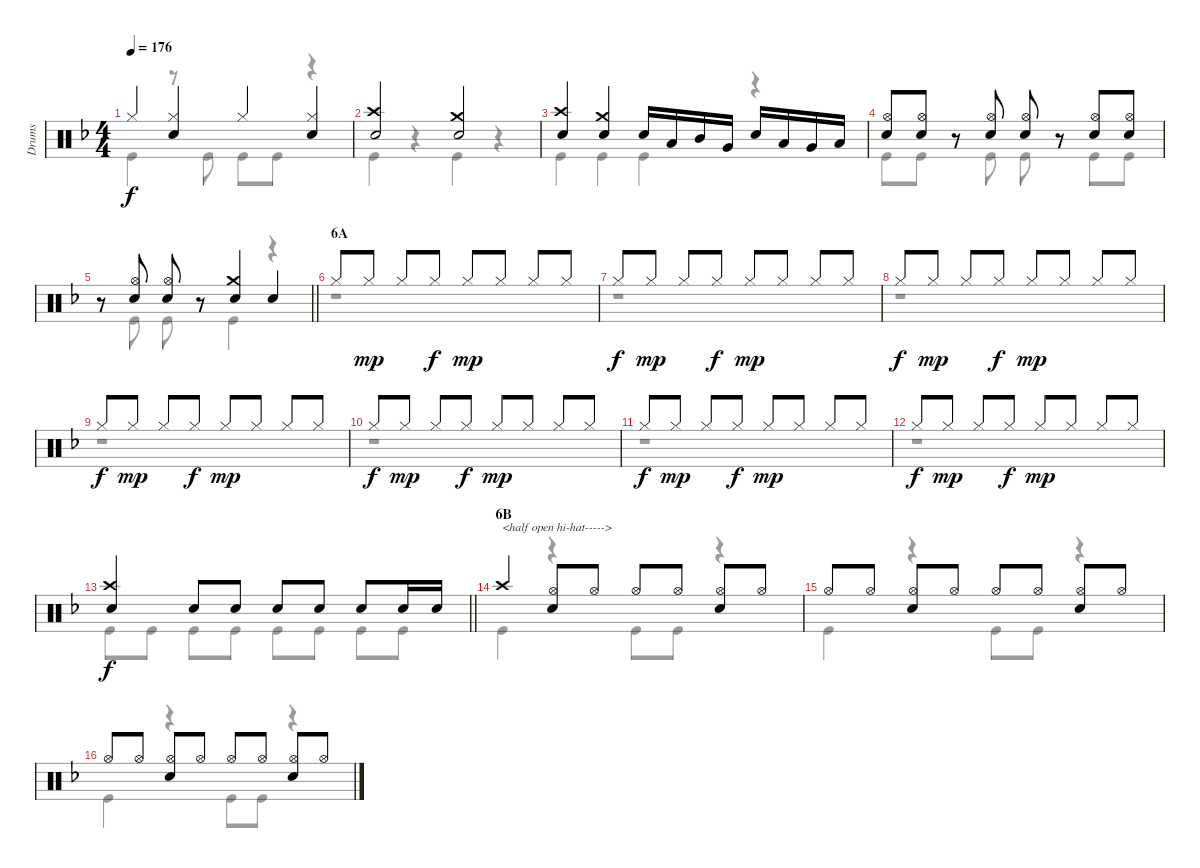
\track ("Drums" "Drums") {instrument percussion}
\staff {score}
\articulation defaults
\voice
\ts (4 4)
\tempo 176
\clef neutral
\ks f "Hi-Hat (closed)".4{dy f}
("Hi-Hat (closed)" "Snare (hit) 2").4 "Hi-Hat (closed)".4 ("Hi-Hat (closed)" "Snare (hit) 2").4 |
("Crash high (hit)" "Snare (hit) 2").2 ("Crash medium (hit)" "Snare (hit) 2").2 |
("Crash high (hit)" "Snare (hit) 2").4 ("Crash medium (hit)" "Snare (hit) 2").4 "Snare (hit) 2".16 "Low Tom (hit)".16 "Mid Tom (hit)".16 "Very Low Tom (hit)".16 "Snare (hit) 2".16 "Low Tom (hit)".16 "Very Low Tom (hit)".16 "Low Floor Tom (hit)".16 |
("Hi-Hat (open)" "Snare (hit) 2").8 ("Hi-Hat (open)" "Snare (hit) 2").8 r.8 ("Hi-Hat (open)" "Snare (hit) 2").8 ("Hi-Hat (open)" "Snare (hit) 2").8 r.8 ("Hi-Hat (open)" "Snare (hit) 2").8 ("Hi-Hat (open)" "Snare (hit) 2").8 |
\barLineRight lightlight
r.8 ("Hi-Hat (open)" "Snare (hit) 2").8 ("Hi-Hat (open)" "Snare (hit) 2").8 r.8 ("Crash medium (hit)" "Snare (hit) 2").4 "Snare (hit) 2".4 |
\section ("" "6A")
"Hi-Hat (closed)".8 "Hi-Hat (closed)".8{dy mp} "Hi-Hat (closed)".8 "Hi-Hat (closed)".8{dy f} "Hi-Hat (closed)".8{dy mp} "Hi-Hat (closed)".8 "Hi-Hat (closed)".8 "Hi-Hat (closed)".8 |
"Hi-Hat (closed)".8{dy f} "Hi-Hat (closed)".8{dy mp} "Hi-Hat (closed)".8 "Hi-Hat (closed)".8{dy f} "Hi-Hat (closed)".8{dy mp} "Hi-Hat (closed)".8 "Hi-Hat (closed)".8 "Hi-Hat (closed)".8 |
"Hi-Hat (closed)".8{dy f} "Hi-Hat (closed)".8{dy mp} "Hi-Hat (closed)".8 "Hi-Hat (closed)".8{dy f} "Hi-Hat (closed)".8{dy mp} "Hi-Hat (closed)".8 "Hi-Hat (closed)".8 "Hi-Hat (closed)".8 |
"Hi-Hat (closed)".8{dy f} "Hi-Hat (closed)".8{dy mp} "Hi-Hat (closed)".8 "Hi-Hat (closed)".8{dy f} "Hi-Hat (closed)".8{dy mp} "Hi-Hat (closed)".8 "Hi-Hat (closed)".8 "Hi-Hat (closed)".8 |
"Hi-Hat (closed)".8{dy f} "Hi-Hat (closed)".8{dy mp} "Hi-Hat (closed)".8 "Hi-Hat (closed)".8{dy f} "Hi-Hat (closed)".8{dy mp} "Hi-Hat (closed)".8 "Hi-Hat (closed)".8 "Hi-Hat (closed)".8 |
"Hi-Hat (closed)".8{dy f} "Hi-Hat (closed)".8{dy mp} "Hi-Hat (closed)".8 "Hi-Hat (closed)".8{dy f} "Hi-Hat (closed)".8{dy mp} "Hi-Hat (closed)".8 "Hi-Hat (closed)".8 "Hi-Hat (closed)".8 |
"Hi-Hat (closed)".8{dy f} "Hi-Hat (closed)".8{dy mp} "Hi-Hat (closed)".8 "Hi-Hat (closed)".8{dy f} "Hi-Hat (closed)".8{dy mp} "Hi-Hat (closed)".8 "Hi-Hat (closed)".8 "Hi-Hat (closed)".8 |
\barLineRight lightlight
("Crash high (hit)" "Snare (hit) 2").4{dy f} "Snare (hit) 2".8 "Snare (hit) 2".8 "Snare (hit) 2".8 "Snare (hit) 2".8 "Snare (hit) 2".8 "Snare (hit) 2".16 "Snare (hit) 2".16 |
\section ("" "6B")
"Crash high (hit)".4{txt "<half open hi-hat----->"} ("Hi-Hat (open)" "Snare (hit) 2").8 "Hi-Hat (open)".8 "Hi-Hat (open)".8 "Hi-Hat (open)".8 ("Hi-Hat (open)" "Snare (hit) 2").8 "Hi-Hat (open)".8 |
"Hi-Hat (open)".8 "Hi-Hat (open)".8 ("Hi-Hat (open)" "Snare (hit) 2").8 "Hi-Hat (open)".8 "Hi-Hat (open)".8 "Hi-Hat (open)".8 ("Hi-Hat (open)" "Snare (hit) 2").8 "Hi-Hat (open)".8 |
"Hi-Hat (open)".8 "Hi-Hat (open)".8 ("Hi-Hat (open)" "Snare (hit) 2").8 "Hi-Hat (open)".8 "Hi-Hat (open)".8 "Hi-Hat (open)".8 ("Hi-Hat (open)" "Snare (hit) 2").8 "Hi-Hat (open)".8
\voice
\clef neutral
\ottava regular
\simile none
\ks f "Kick (hit)".4{dy f}
r.8 "Kick (hit)".8 "Kick (hit)".8 "Kick (hit)".8 r.4 |
"Kick (hit)".4 r.4 "Kick (hit)".4 r.4 |
"Kick (hit)".4 "Kick (hit)".4 "Kick (hit)".4 r.4 |
"Kick (hit)".8 "Kick (hit)".8 r.8 "Kick (hit)".8 "Kick (hit)".8 r.8 "Kick (hit)".8 "Kick (hit)".8 |
\barLineRight lightlight
r.8 "Kick (hit)".8 "Kick (hit)".8 r.8 "Kick (hit)".4 r.4 |
r.1 |
r.1 |
r.1 |
r.1 |
r.1 |
r.1 |
r.1 |
\barLineRight lightlight "Kick (hit)".8 "Kick (hit)".8 "Kick (hit)".8 "Kick (hit)".8 "Kick (hit)".8 "Kick (hit)".8 "Kick (hit)".8 "Kick (hit)".8
|
"Kick (hit)".4 r.4 "Kick (hit)".8 "Kick (hit)".8 r.4 |
"Kick (hit)".4 r.4 "Kick (hit)".8 "Kick (hit)".8 r.4 |
"Kick (hit)".4 r.4 "Kick (hit)".8 "Kick (hit)".8 r.4
